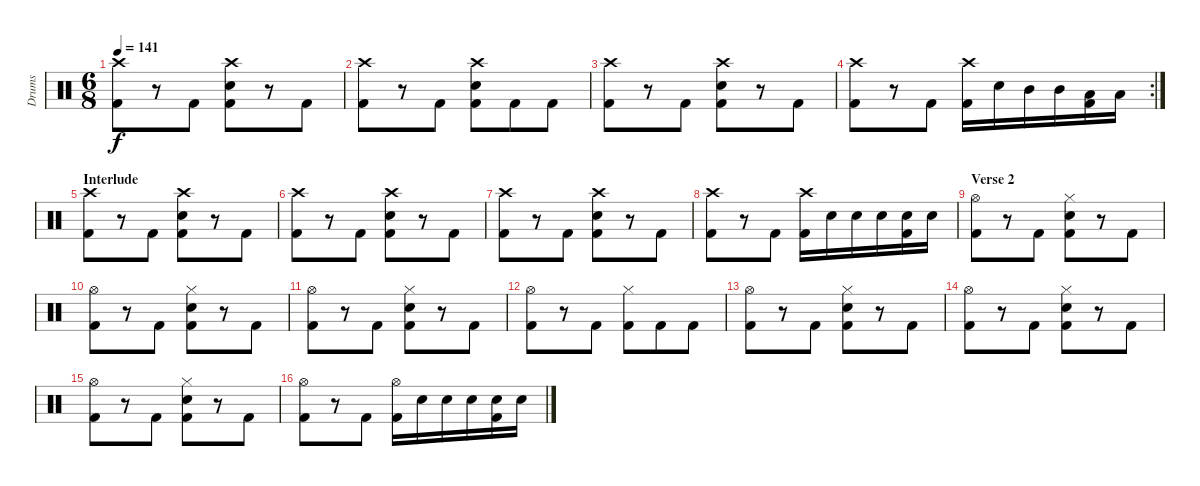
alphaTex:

\track ("Drums" "Drums") {instrument percussion}
\staff {score}
\articulation defaults
\ts (6 8)
\tempo 141
\clef neutral
\ks c
("Crash high (hit)" "Kick (hit) 2").8{dy f} r.8 "Kick (hit) 2".8 ("Crash high (hit)" "Electric Snare (hit)" "Kick (hit) 2").8 r.8 "Kick (hit) 2".8 |
("Crash high (hit)" "Kick (hit) 2").8 r.8 "Kick (hit) 2".8 ("Crash high (hit)" "Electric Snare (hit)" "Kick (hit) 2").8 "Kick (hit) 2".8 "Kick (hit) 2".8 |
("Crash high (hit)" "Kick (hit) 2").8 r.8 "Kick (hit) 2".8 ("Crash high (hit)" "Electric Snare (hit)" "Kick (hit) 2").8 r.8 "Kick (hit) 2".8 |
\rc 2
("Crash high (hit)" "Kick (hit) 2").8 r.8 "Kick (hit) 2".8 ("Crash high (hit)" "Kick (hit) 2").16 "Snare (hit)".16 "Mid Tom (hit)".16 "Mid Tom (hit)".16 ("Low Tom (hit)" "Kick (hit) 2").16 "Low Tom (hit)".16 |
\section ("" "Interlude")
("Crash high (hit)" "Kick (hit) 2").8 r.8 "Kick (hit) 2".8 ("Crash high (hit)" "Electric Snare (hit)" "Kick (hit) 2").8 r.8 "Kick (hit) 2".8 |
("Crash high (hit)" "Kick (hit) 2").8 r.8 "Kick (hit) 2".8 ("Crash high (hit)" "Electric Snare (hit)" "Kick (hit) 2").8 r.8 "Kick (hit) 2".8 |
("Crash high (hit)" "Kick (hit) 2").8 r.8 "Kick (hit) 2".8 ("Crash high (hit)" "Electric Snare (hit)" "Kick (hit) 2").8 r.8 "Kick (hit) 2".8 |
("Crash high (hit)" "Kick (hit) 2").8 r.8 "Kick (hit) 2".8 ("Crash high (hit)" "Kick (hit) 2").16 "Electric Snare (hit)".16 "Electric Snare (hit)".16 "Electric Snare (hit)".16 ("Electric Snare (hit)" "Kick (hit) 2").16 "Electric Snare (hit)".16 |
\section ("" "Verse 2")
("Hi-Hat (open)" "Kick (hit) 2").8 r.8 "Kick (hit) 2".8 ("Hi-Hat (closed)" "Electric Snare (hit)" "Kick (hit) 2").8 r.8 "Kick (hit) 2".8 |
("Hi-Hat (open)" "Kick (hit) 2").8 r.8 "Kick (hit) 2".8 ("Hi-Hat (closed)" "Electric Snare (hit)" "Kick (hit) 2").8 r.8 "Kick (hit) 2".8 |
("Hi-Hat (open)" "Kick (hit) 2").8 r.8 "Kick (hit) 2".8 ("Hi-Hat (closed)" "Electric Snare (hit)" "Kick (hit) 2").8 r.8 "Kick (hit) 2".8 |
("Hi-Hat (open)" "Kick (hit) 2").8 r.8 "Kick (hit) 2".8 ("Hi-Hat (closed)" "Kick (hit) 2").8 "Kick (hit) 2".8 "Kick (hit) 2".8 |
("Hi-Hat (open)" "Kick (hit) 2").8 r.8 "Kick (hit) 2".8 ("Hi-Hat (closed)" "Electric Snare (hit)" "Kick (hit) 2").8 r.8 "Kick (hit) 2".8 |
("Hi-Hat (open)" "Kick (hit) 2").8 r.8 "Kick (hit) 2".8 ("Hi-Hat (closed)" "Electric Snare (hit)" "Kick (hit) 2").8 r.8 "Kick (hit) 2".8 |
("Hi-Hat (open)" "Kick (hit) 2").8 r.8 "Kick (hit) 2".8 ("Hi-Hat (closed)" "Electric Snare (hit)" "Kick (hit) 2").8 r.8 "Kick (hit) 2".8 |
("Hi-Hat (open)" "Kick (hit) 2").8 r.8 "Kick (hit) 2".8 ("Hi-Hat (open)" "Kick (hit) 2").16 "Electric Snare (hit)".16 "Electric Snare (hit)".16 "Electric Snare (hit)".16 ("Electric Snare (hit)" "Kick (hit) 2").16 "Electric Snare (hit)".16
